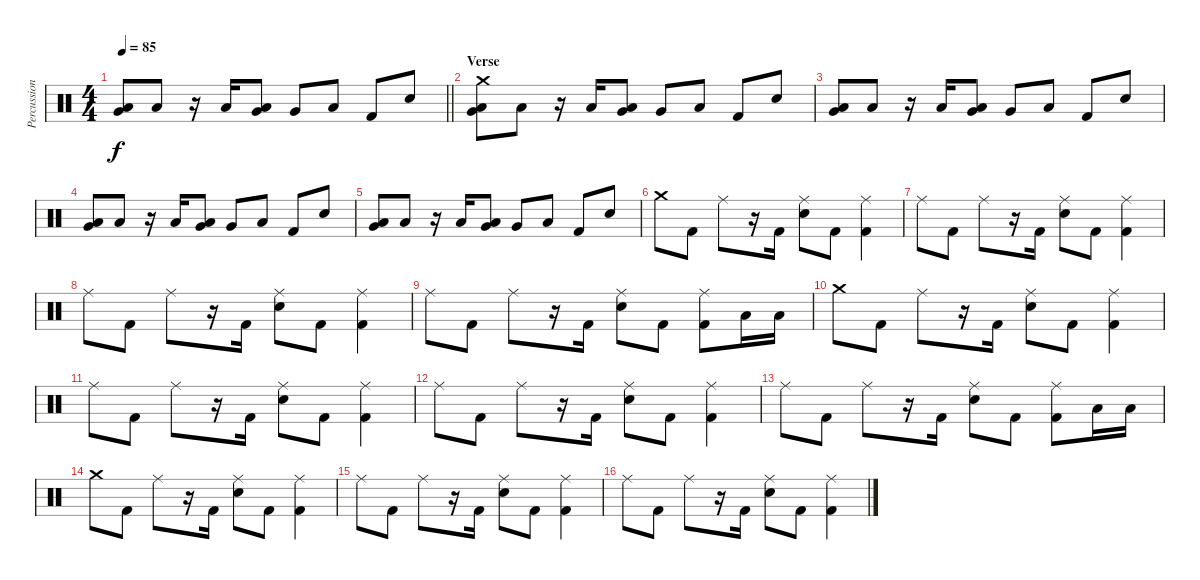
\track ("Percussion" "Percussion") {instrument percussion}
\staff {score}
\articulation defaults
\ts (4 4)
\tempo 85
\clef neutral
\barLineRight lightlight
\ks c
("Low Floor Tom (hit)" "Very Low Tom (hit)").8{dy f} "Low Floor Tom (hit)".8 r.16 "Low Floor Tom (hit)".16 ("Low Tom (hit)" "Very Low Tom (hit)").8 "Very Low Tom (hit)".8 "Low Floor Tom (hit)".8 "Kick (hit) 2".8 "Electric Snare (hit)".8 |
\section ("" "Verse")
("Crash medium (hit)" "Low Floor Tom (hit)" "Very Low Tom (hit)").8 "Low Floor Tom (hit)".8 r.16 "Low Floor Tom (hit)".16 ("Low Tom (hit)" "Very Low Tom (hit)").8 "Very Low Tom (hit)".8 "Low Floor Tom (hit)".8 "Kick (hit) 2".8 "Electric Snare (hit)".8 |
("Low Floor Tom (hit)" "Very Low Tom (hit)").8 "Low Floor Tom (hit)".8 r.16 "Low Floor Tom (hit)".16 ("Low Tom (hit)" "Very Low Tom (hit)").8 "Very Low Tom (hit)".8 "Low Floor Tom (hit)".8 "Kick (hit) 2".8 "Electric Snare (hit)".8 |
("Low Floor Tom (hit)" "Very Low Tom (hit)").8 "Low Floor Tom (hit)".8 r.16 "Low Floor Tom (hit)".16 ("Low Tom (hit)" "Very Low Tom (hit)").8 "Very Low Tom (hit)".8 "Low Floor Tom (hit)".8 "Kick (hit) 2".8 "Electric Snare (hit)".8 |
("Low Floor Tom (hit)" "Very Low Tom (hit)").8 "Low Floor Tom (hit)".8 r.16 "Low Floor Tom (hit)".16 ("Low Tom (hit)" "Very Low Tom (hit)").8 "Very Low Tom (hit)".8 "Low Floor Tom (hit)".8 "Kick (hit) 2".8 "Electric Snare (hit)".8 |
"Crash medium (hit)".8 "Kick (hit) 2".8 "Ride (middle)".8 r.16 "Kick (hit) 2".16 ("Ride (middle)" "Electric Snare (hit)").8 "Kick (hit) 2".8 ("Ride (middle)" "Kick (hit) 2").4 |
"Ride (middle)".8 "Kick (hit) 2".8 "Ride (middle)".8 r.16 "Kick (hit) 2".16 ("Ride (middle)" "Electric Snare (hit)").8 "Kick (hit) 2".8 ("Ride (middle)" "Kick (hit) 2").4 |
"Ride (middle)".8 "Kick (hit) 2".8 "Ride (middle)".8 r.16 "Kick (hit) 2".16 ("Ride (middle)" "Electric Snare (hit)").8 "Kick (hit) 2".8 ("Ride (middle)" "Kick (hit) 2").4 |
"Ride (middle)".8 "Kick (hit) 2".8 "Ride (middle)".8 r.16 "Kick (hit) 2".16 ("Ride (middle)" "Electric Snare (hit)").8 "Kick (hit) 2".8 ("Ride (middle)" "Kick (hit) 2").8 "Low Floor Tom (hit)".16 "Low Floor Tom (hit)".16 |
"Crash medium (hit)".8 "Kick (hit) 2".8 "Ride (middle)".8 r.16 "Kick (hit) 2".16 ("Ride (middle)" "Electric Snare (hit)").8 "Kick (hit) 2".8 ("Ride (middle)" "Kick (hit) 2").4 |
"Ride (middle)".8 "Kick (hit) 2".8 "Ride (middle)".8 r.16 "Kick (hit) 2".16 ("Ride (middle)" "Electric Snare (hit)").8 "Kick (hit) 2".8 ("Ride (middle)" "Kick (hit) 2").4 |
"Ride (middle)".8 "Kick (hit) 2".8 "Ride (middle)".8 r.16 "Kick (hit) 2".16 ("Ride (middle)" "Electric Snare (hit)").8 "Kick (hit) 2".8 ("Ride (middle)" "Kick (hit) 2").4 |
"Ride (middle)".8 "Kick (hit) 2".8 "Ride (middle)".8 r.16 "Kick (hit) 2".16 ("Ride (middle)" "Electric Snare (hit)").8 "Kick (hit) 2".8 ("Ride (middle)" "Kick (hit) 2").8 "Low Floor Tom (hit)".16 "Low Floor Tom (hit)".16 |
"Crash medium (hit)".8 "Kick (hit) 2".8 "Ride (middle)".8 r.16 "Kick (hit) 2".16 ("Ride (middle)" "Electric Snare (hit)").8 "Kick (hit) 2".8 ("Ride (middle)" "Kick (hit) 2").4 |
"Ride (middle)".8 "Kick (hit) 2".8 "Ride (middle)".8 r.16 "Kick (hit) 2".16 ("Ride (middle)" "Electric Snare (hit)").8 "Kick (hit) 2".8 ("Ride (middle)" "Kick (hit) 2").4 |
"Ride (middle)".8 "Kick (hit) 2".8 "Ride (middle)".8 r.16 "Kick (hit) 2".16 ("Ride (middle)" "Electric Snare (hit)").8 "Kick (hit) 2".8 ("Ride (middle)" "Kick (hit) 2").4
